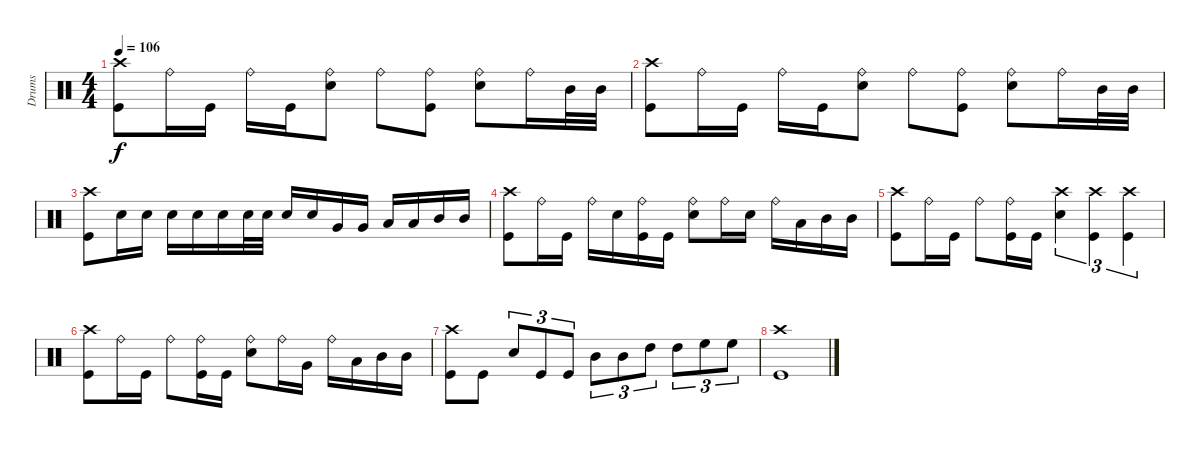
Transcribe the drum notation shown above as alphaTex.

\track ("Drums" "Drums") {instrument percussion}
\staff {score}
\articulation defaults
\ts (4 4)
\tempo 106
\clef neutral
\ks c
("Crash high (hit)" "Kick (hit)").8{dy f} "Ride (bell)".16 "Kick (hit)".16 "Ride (bell)".16 "Kick (hit)".16 ("Ride (bell)" "Snare (hit) 2").8 "Ride (bell)".8 ("Ride (bell)" "Kick (hit)").8 ("Ride (bell)" "Snare (hit) 2").8 "Ride (bell)".16 "Mid Tom (hit)".32 "Mid Tom (hit)".32 |
("Crash high (hit)" "Kick (hit)").8 "Ride (bell)".16 "Kick (hit)".16 "Ride (bell)".16 "Kick (hit)".16 ("Ride (bell)" "Snare (hit) 2").8 "Ride (bell)".8 ("Ride (bell)" "Kick (hit)").8 ("Ride (bell)" "Snare (hit) 2").8 "Ride (bell)".16 "Mid Tom (hit)".32 "Mid Tom (hit)".32 |
("Kick (hit)" "Crash high (hit)").8 "Snare (hit) 2".16 "Snare (hit) 2".16 "Snare (hit) 2".16 "Snare (hit) 2".16 "Snare (hit) 2".16 "Snare (hit) 2".32 "Snare (hit) 2".32 "Snare (hit) 2".16 "Snare (hit) 2".16 "Very Low Tom (hit)".16 "Very Low Tom (hit)".16 "Low Tom (hit)".16 "Low Tom (hit)".16 "Mid Tom (hit)".16 "Mid Tom (hit)".16 |
("Crash high (hit)" "Kick (hit)").8 "Ride (bell)".16 "Kick (hit)".16 "Ride (bell)".16 "Electric Snare (hit)".16 ("Ride (bell)" "Kick (hit)").16 "Kick (hit)".16 ("Ride (bell)" "Snare (hit) 2").8 "Ride (bell)".16 "Electric Snare (hit)".16 "Ride (bell)".16 "Low Tom (hit)".16 "Mid Tom (hit)".16 "Mid Tom (hit)".16 |
("Crash high (hit)" "Kick (hit)").8 "Ride (bell)".16 "Kick (hit)".16 "Ride (bell)".8 ("Ride (bell)" "Kick (hit)").16 "Kick (hit)".16 ("Crash high (hit)" "Snare (hit) 2").4{tu (3 2)} ("Crash high (hit)" "Kick (hit)").4{tu (3 2)} ("Crash high (hit)" "Kick (hit)").4{tu (3 2)} |
("Crash high (hit)" "Kick (hit)").8 "Ride (bell)".16 "Kick (hit)".16 "Ride (bell)".8 ("Ride (bell)" "Kick (hit)").16 "Kick (hit)".16 ("Snare (hit) 2" "Ride (bell)").8 "Ride (bell)".16 "Very Low Tom (hit)".16 "Ride (bell)".16 "Low Tom (hit)".16 "Mid Tom (hit)".16 "Mid Tom (hit)".16 |
("Kick (hit)" "Crash high (hit)").8 "Kick (hit)".8 "Snare (hit) 2".8{tu (3 2)} "Kick (hit)".8{tu (3 2)} "Kick (hit)".8{tu (3 2)} "Mid Tom (hit)".8{tu (3 2)} "Mid Tom (hit)".8{tu (3 2)} "High Tom (hit)".8{tu (3 2)} "High Tom (hit)".8{tu (3 2)} "High Floor Tom (hit)".8{tu (3 2)} "High Floor Tom (hit)".8{tu (3 2)} |
("Crash high (hit)" "Kick (hit)").1
